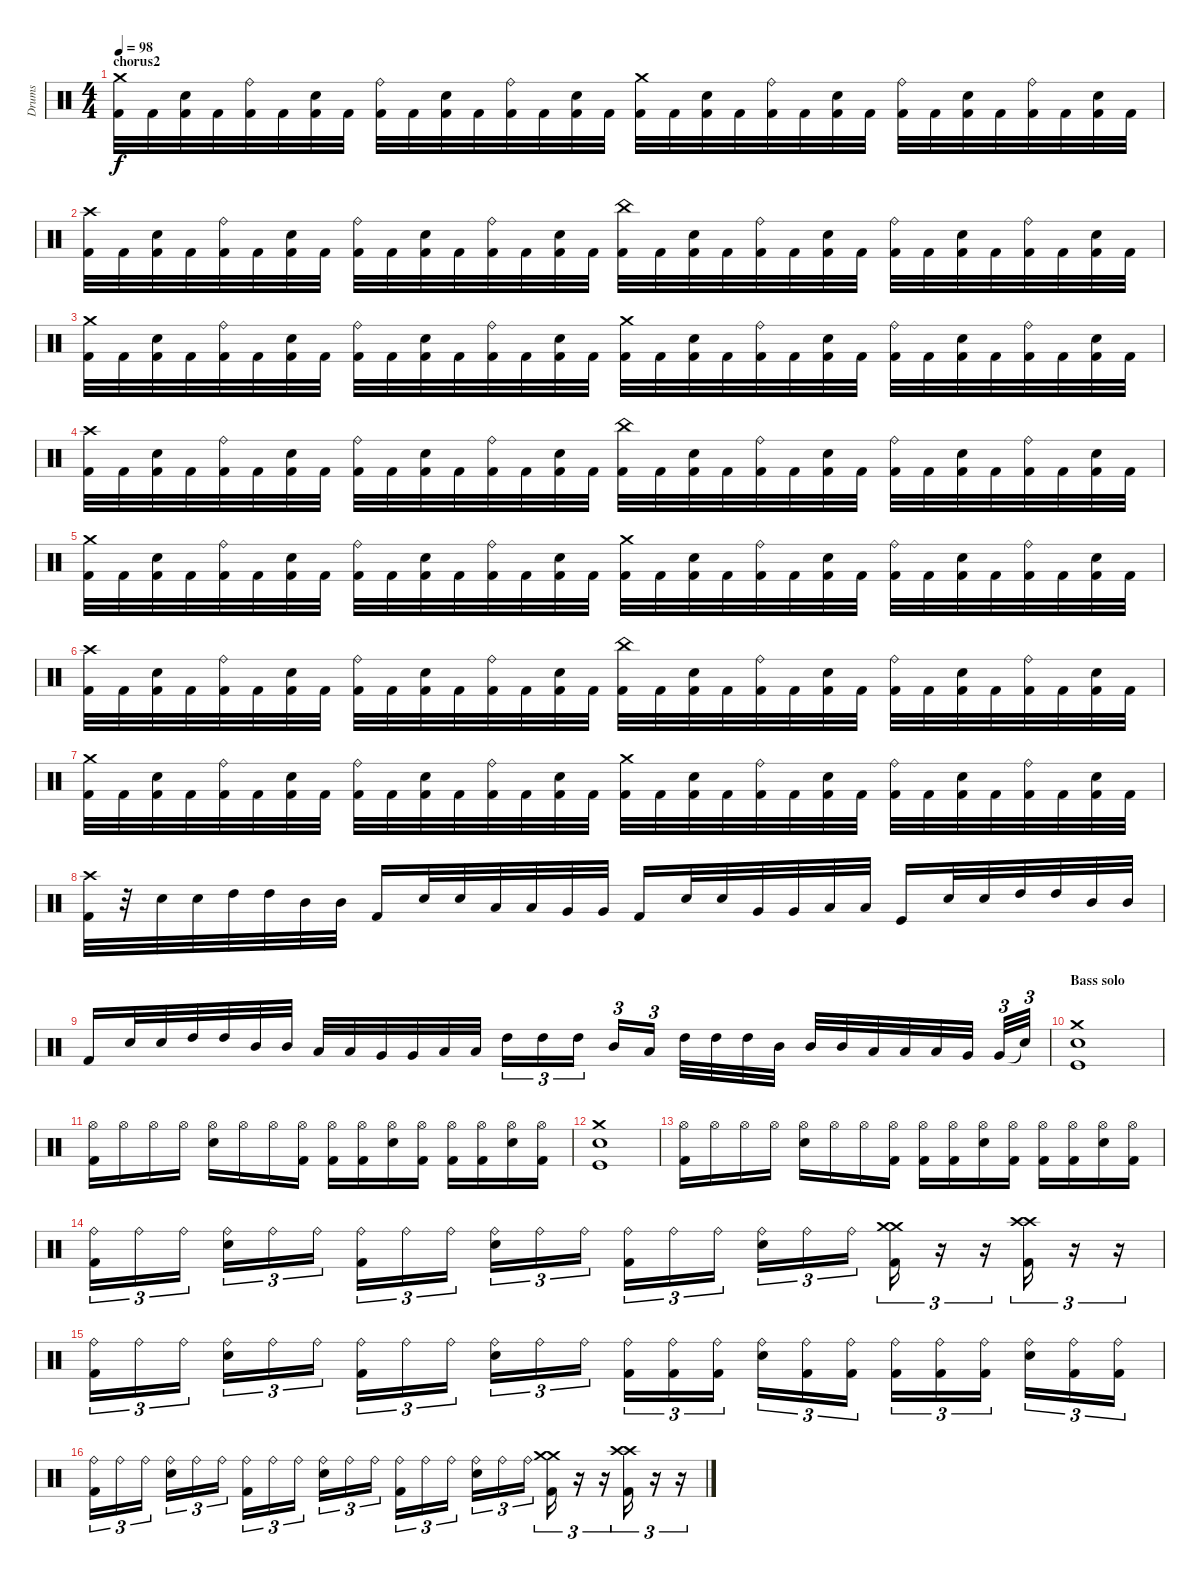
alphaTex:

\track ("Drums" "Drums") {instrument percussion}
\staff {score}
\articulation defaults
\ts (4 4)
\section ("" "chorus2")
\tempo 98
\clef neutral
\ks c
("Crash medium (hit)" "Kick (hit) 2").32{dy f} "Kick (hit) 2".32 ("Electric Snare (hit)" "Kick (hit) 2").32 "Kick (hit) 2".32 ("Ride (bell)" "Kick (hit) 2").32 "Kick (hit) 2".32 ("Electric Snare (hit)" "Kick (hit) 2").32 "Kick (hit) 2".32 ("Ride (bell)" "Kick (hit) 2").32 "Kick (hit) 2".32 ("Electric Snare (hit)" "Kick (hit) 2").32 "Kick (hit) 2".32 ("Ride (bell)" "Kick (hit) 2").32 "Kick (hit) 2".32 ("Electric Snare (hit)" "Kick (hit) 2").32 "Kick (hit) 2".32 ("Crash medium (hit)" "Kick (hit) 2").32 "Kick (hit) 2".32 ("Electric Snare (hit)" "Kick (hit) 2").32 "Kick (hit) 2".32 ("Ride (bell)" "Kick (hit) 2").32 "Kick (hit) 2".32 ("Electric Snare (hit)" "Kick (hit) 2").32 "Kick (hit) 2".32 ("Ride (bell)" "Kick (hit) 2").32 "Kick (hit) 2".32 ("Electric Snare (hit)" "Kick (hit) 2").32 "Kick (hit) 2".32 ("Ride (bell)" "Kick (hit) 2").32 "Kick (hit) 2".32 ("Electric Snare (hit)" "Kick (hit) 2").32 "Kick (hit) 2".32 |
("Crash high (hit)" "Kick (hit) 2").32 "Kick (hit) 2".32 ("Electric Snare (hit)" "Kick (hit) 2").32 "Kick (hit) 2".32 ("Ride (bell)" "Kick (hit) 2").32 "Kick (hit) 2".32 ("Electric Snare (hit)" "Kick (hit) 2").32 "Kick (hit) 2".32 ("Ride (bell)" "Kick (hit) 2").32 "Kick (hit) 2".32 ("Electric Snare (hit)" "Kick (hit) 2").32 "Kick (hit) 2".32 ("Ride (bell)" "Kick (hit) 2").32 "Kick (hit) 2".32 ("Electric Snare (hit)" "Kick (hit) 2").32 "Kick (hit) 2".32 ("China (hit)" "Kick (hit) 2").32 "Kick (hit) 2".32 ("Electric Snare (hit)" "Kick (hit) 2").32 "Kick (hit) 2".32 ("Ride (bell)" "Kick (hit) 2").32 "Kick (hit) 2".32 ("Electric Snare (hit)" "Kick (hit) 2").32 "Kick (hit) 2".32 ("Ride (bell)" "Kick (hit) 2").32 "Kick (hit) 2".32 ("Electric Snare (hit)" "Kick (hit) 2").32 "Kick (hit) 2".32 ("Ride (bell)" "Kick (hit) 2").32 "Kick (hit) 2".32 ("Electric Snare (hit)" "Kick (hit) 2").32 "Kick (hit) 2".32 |
("Crash medium (hit)" "Kick (hit) 2").32 "Kick (hit) 2".32 ("Electric Snare (hit)" "Kick (hit) 2").32 "Kick (hit) 2".32 ("Ride (bell)" "Kick (hit) 2").32 "Kick (hit) 2".32 ("Electric Snare (hit)" "Kick (hit) 2").32 "Kick (hit) 2".32 ("Ride (bell)" "Kick (hit) 2").32 "Kick (hit) 2".32 ("Electric Snare (hit)" "Kick (hit) 2").32 "Kick (hit) 2".32 ("Ride (bell)" "Kick (hit) 2").32 "Kick (hit) 2".32 ("Electric Snare (hit)" "Kick (hit) 2").32 "Kick (hit) 2".32 ("Crash medium (hit)" "Kick (hit) 2").32 "Kick (hit) 2".32 ("Electric Snare (hit)" "Kick (hit) 2").32 "Kick (hit) 2".32 ("Ride (bell)" "Kick (hit) 2").32 "Kick (hit) 2".32 ("Electric Snare (hit)" "Kick (hit) 2").32 "Kick (hit) 2".32 ("Ride (bell)" "Kick (hit) 2").32 "Kick (hit) 2".32 ("Electric Snare (hit)" "Kick (hit) 2").32 "Kick (hit) 2".32 ("Ride (bell)" "Kick (hit) 2").32 "Kick (hit) 2".32 ("Electric Snare (hit)" "Kick (hit) 2").32 "Kick (hit) 2".32 |
("Crash high (hit)" "Kick (hit) 2").32 "Kick (hit) 2".32 ("Electric Snare (hit)" "Kick (hit) 2").32 "Kick (hit) 2".32 ("Ride (bell)" "Kick (hit) 2").32 "Kick (hit) 2".32 ("Electric Snare (hit)" "Kick (hit) 2").32 "Kick (hit) 2".32 ("Ride (bell)" "Kick (hit) 2").32 "Kick (hit) 2".32 ("Electric Snare (hit)" "Kick (hit) 2").32 "Kick (hit) 2".32 ("Ride (bell)" "Kick (hit) 2").32 "Kick (hit) 2".32 ("Electric Snare (hit)" "Kick (hit) 2").32 "Kick (hit) 2".32 ("China (hit)" "Kick (hit) 2").32 "Kick (hit) 2".32 ("Electric Snare (hit)" "Kick (hit) 2").32 "Kick (hit) 2".32 ("Ride (bell)" "Kick (hit) 2").32 "Kick (hit) 2".32 ("Electric Snare (hit)" "Kick (hit) 2").32 "Kick (hit) 2".32 ("Ride (bell)" "Kick (hit) 2").32 "Kick (hit) 2".32 ("Electric Snare (hit)" "Kick (hit) 2").32 "Kick (hit) 2".32 ("Ride (bell)" "Kick (hit) 2").32 "Kick (hit) 2".32 ("Electric Snare (hit)" "Kick (hit) 2").32 "Kick (hit) 2".32 |
("Crash medium (hit)" "Kick (hit) 2").32 "Kick (hit) 2".32 ("Electric Snare (hit)" "Kick (hit) 2").32 "Kick (hit) 2".32 ("Ride (bell)" "Kick (hit) 2").32 "Kick (hit) 2".32 ("Electric Snare (hit)" "Kick (hit) 2").32 "Kick (hit) 2".32 ("Ride (bell)" "Kick (hit) 2").32 "Kick (hit) 2".32 ("Electric Snare (hit)" "Kick (hit) 2").32 "Kick (hit) 2".32 ("Ride (bell)" "Kick (hit) 2").32 "Kick (hit) 2".32 ("Electric Snare (hit)" "Kick (hit) 2").32 "Kick (hit) 2".32 ("Crash medium (hit)" "Kick (hit) 2").32 "Kick (hit) 2".32 ("Electric Snare (hit)" "Kick (hit) 2").32 "Kick (hit) 2".32 ("Ride (bell)" "Kick (hit) 2").32 "Kick (hit) 2".32 ("Electric Snare (hit)" "Kick (hit) 2").32 "Kick (hit) 2".32 ("Ride (bell)" "Kick (hit) 2").32 "Kick (hit) 2".32 ("Electric Snare (hit)" "Kick (hit) 2").32 "Kick (hit) 2".32 ("Ride (bell)" "Kick (hit) 2").32 "Kick (hit) 2".32 ("Electric Snare (hit)" "Kick (hit) 2").32 "Kick (hit) 2".32 |
("Crash high (hit)" "Kick (hit) 2").32 "Kick (hit) 2".32 ("Electric Snare (hit)" "Kick (hit) 2").32 "Kick (hit) 2".32 ("Ride (bell)" "Kick (hit) 2").32 "Kick (hit) 2".32 ("Electric Snare (hit)" "Kick (hit) 2").32 "Kick (hit) 2".32 ("Ride (bell)" "Kick (hit) 2").32 "Kick (hit) 2".32 ("Electric Snare (hit)" "Kick (hit) 2").32 "Kick (hit) 2".32 ("Ride (bell)" "Kick (hit) 2").32 "Kick (hit) 2".32 ("Electric Snare (hit)" "Kick (hit) 2").32 "Kick (hit) 2".32 ("China (hit)" "Kick (hit) 2").32 "Kick (hit) 2".32 ("Electric Snare (hit)" "Kick (hit) 2").32 "Kick (hit) 2".32 ("Ride (bell)" "Kick (hit) 2").32 "Kick (hit) 2".32 ("Electric Snare (hit)" "Kick (hit) 2").32 "Kick (hit) 2".32 ("Ride (bell)" "Kick (hit) 2").32 "Kick (hit) 2".32 ("Electric Snare (hit)" "Kick (hit) 2").32 "Kick (hit) 2".32 ("Ride (bell)" "Kick (hit) 2").32 "Kick (hit) 2".32 ("Electric Snare (hit)" "Kick (hit) 2").32 "Kick (hit) 2".32 |
("Crash medium (hit)" "Kick (hit) 2").32 "Kick (hit) 2".32 ("Electric Snare (hit)" "Kick (hit) 2").32 "Kick (hit) 2".32 ("Ride (bell)" "Kick (hit) 2").32 "Kick (hit) 2".32 ("Electric Snare (hit)" "Kick (hit) 2").32 "Kick (hit) 2".32 ("Ride (bell)" "Kick (hit) 2").32 "Kick (hit) 2".32 ("Electric Snare (hit)" "Kick (hit) 2").32 "Kick (hit) 2".32 ("Ride (bell)" "Kick (hit) 2").32 "Kick (hit) 2".32 ("Electric Snare (hit)" "Kick (hit) 2").32 "Kick (hit) 2".32 ("Crash medium (hit)" "Kick (hit) 2").32 "Kick (hit) 2".32 ("Electric Snare (hit)" "Kick (hit) 2").32 "Kick (hit) 2".32 ("Ride (bell)" "Kick (hit) 2").32 "Kick (hit) 2".32 ("Electric Snare (hit)" "Kick (hit) 2").32 "Kick (hit) 2".32 ("Ride (bell)" "Kick (hit) 2").32 "Kick (hit) 2".32 ("Electric Snare (hit)" "Kick (hit) 2").32 "Kick (hit) 2".32 ("Ride (bell)" "Kick (hit) 2").32 "Kick (hit) 2".32 ("Electric Snare (hit)" "Kick (hit) 2").32 "Kick (hit) 2".32 |
("Crash high (hit)" "Kick (hit) 2").32 r.32 "Electric Snare (hit)".32 "Electric Snare (hit)".32 "High Tom (hit)".32 "High Tom (hit)".32 "Mid Tom (hit)".32 "Mid Tom (hit)".32 "Kick (hit) 2".16 "Electric Snare (hit)".32 "Electric Snare (hit)".32 "Low Tom (hit)".32 "Low Tom (hit)".32 "Very Low Tom (hit)".32 "Very Low Tom (hit)".32 "Kick (hit) 2".16 "Electric Snare (hit)".32 "Electric Snare (hit)".32 "Very Low Tom (hit)".32 "Very Low Tom (hit)".32 "Low Floor Tom (hit)".32 "Low Floor Tom (hit)".32 "Kick (hit)".16 "Electric Snare (hit)".32 "Electric Snare (hit)".32 "High Tom (hit)".32 "High Tom (hit)".32 "Mid Tom (hit)".32 "Mid Tom (hit)".32 |
"Kick (hit) 2".16 "Electric Snare (hit)".32 "Electric Snare (hit)".32 "High Tom (hit)".32 "High Tom (hit)".32 "Mid Tom (hit)".32 "Mid Tom (hit)".32 "Low Tom (hit)".32 "Low Tom (hit)".32 "Very Low Tom (hit)".32 "Very Low Tom (hit)".32 "Low Floor Tom (hit)".32 "Low Floor Tom (hit)".32 "High Tom (hit)".16{tu (3 2)} "High Tom (hit)".16{tu (3 2)} "High Tom (hit)".16{tu (3 2)} "Mid Tom (hit)".16{tu (3 2)} "Low Tom (hit)".16{tu (3 2)} "High Tom (hit)".32 "High Tom (hit)".32 "High Tom (hit)".32 "Mid Tom (hit)".32 "Mid Tom (hit)".32 "Mid Tom (hit)".32 "Low Tom (hit)".32 "Low Tom (hit)".32 "Low Tom (hit)".32 "Very Low Tom (hit)".32 "Very Low Tom (hit)".32{tu (3 2)} "Snare (hit)"{t}.32{tu (3 2)} |
\section ("" "Bass solo")
("Crash medium (hit)" "Electric Snare (hit)" "Kick (hit)").1 |
("Hi-Hat (open)" "Kick (hit) 2").16 "Hi-Hat (open)".16 "Hi-Hat (open)".16 "Hi-Hat (open)".16 ("Hi-Hat (open)" "Electric Snare (hit)").16 "Hi-Hat (open)".16 "Hi-Hat (open)".16 ("Hi-Hat (open)" "Kick (hit) 2").16 ("Hi-Hat (open)" "Kick (hit) 2").16 ("Hi-Hat (open)" "Kick (hit) 2").16 ("Hi-Hat (open)" "Electric Snare (hit)").16 ("Hi-Hat (open)" "Kick (hit) 2").16 ("Hi-Hat (open)" "Kick (hit) 2").16 ("Hi-Hat (open)" "Kick (hit) 2").16 ("Hi-Hat (open)" "Electric Snare (hit)").16 ("Hi-Hat (open)" "Kick (hit) 2").16 |
("Crash medium (hit)" "Electric Snare (hit)" "Kick (hit)").1 |
("Hi-Hat (open)" "Kick (hit) 2").16 "Hi-Hat (open)".16 "Hi-Hat (open)".16 "Hi-Hat (open)".16 ("Hi-Hat (open)" "Electric Snare (hit)").16 "Hi-Hat (open)".16 "Hi-Hat (open)".16 ("Hi-Hat (open)" "Kick (hit) 2").16 ("Hi-Hat (open)" "Kick (hit) 2").16 ("Hi-Hat (open)" "Kick (hit) 2").16 ("Hi-Hat (open)" "Electric Snare (hit)").16 ("Hi-Hat (open)" "Kick (hit) 2").16 ("Hi-Hat (open)" "Kick (hit) 2").16 ("Hi-Hat (open)" "Kick (hit) 2").16 ("Hi-Hat (open)" "Electric Snare (hit)").16 ("Hi-Hat (open)" "Kick (hit) 2").16 |
("Ride (bell)" "Kick (hit) 2").16{tu (3 2)} "Ride (bell)".16{tu (3 2)} "Ride (bell)".16{tu (3 2)} ("Ride (bell)" "Electric Snare (hit)").16{tu (3 2)} "Ride (bell)".16{tu (3 2)} "Ride (bell)".16{tu (3 2)} ("Ride (bell)" "Kick (hit) 2").16{tu (3 2)} "Ride (bell)".16{tu (3 2)} "Ride (bell)".16{tu (3 2)} ("Ride (bell)" "Electric Snare (hit)").16{tu (3 2)} "Ride (bell)".16{tu (3 2)} "Ride (bell)".16{tu (3 2)} ("Ride (bell)" "Kick (hit) 2").16{tu (3 2)} "Ride (bell)".16{tu (3 2)} "Ride (bell)".16{tu (3 2)} ("Ride (bell)" "Electric Snare (hit)").16{tu (3 2)} "Ride (bell)".16{tu (3 2)} "Ride (bell)".16{tu (3 2)} ("Crash medium (hit)" "Crash medium (hit)" "Kick (hit) 2").16{tu (3 2)} r.16{tu (3 2)} r.16{tu (3 2)} ("Crash high (hit)" "Crash high (hit)" "Kick (hit) 2").16{tu (3 2)} r.16{tu (3 2)} r.16{tu (3 2)} |
("Ride (bell)" "Kick (hit) 2").16{tu (3 2)} "Ride (bell)".16{tu (3 2)} "Ride (bell)".16{tu (3 2)} ("Ride (bell)" "Electric Snare (hit)").16{tu (3 2)} "Ride (bell)".16{tu (3 2)} "Ride (bell)".16{tu (3 2)} ("Ride (bell)" "Kick (hit) 2").16{tu (3 2)} "Ride (bell)".16{tu (3 2)} "Ride (bell)".16{tu (3 2)} ("Ride (bell)" "Electric Snare (hit)").16{tu (3 2)} "Ride (bell)".16{tu (3 2)} "Ride (bell)".16{tu (3 2)} ("Ride (bell)" "Kick (hit) 2").16{tu (3 2)} ("Ride (bell)" "Kick (hit) 2").16{tu (3 2)} ("Ride (bell)" "Kick (hit) 2").16{tu (3 2)} ("Ride (bell)" "Electric Snare (hit)").16{tu (3 2)} ("Ride (bell)" "Kick (hit) 2").16{tu (3 2)} ("Ride (bell)" "Kick (hit) 2").16{tu (3 2)} ("Ride (bell)" "Kick (hit) 2").16{tu (3 2)} ("Ride (bell)" "Kick (hit) 2").16{tu (3 2)} ("Ride (bell)" "Kick (hit) 2").16{tu (3 2)} ("Ride (bell)" "Electric Snare (hit)").16{tu (3 2)} ("Ride (bell)" "Kick (hit) 2").16{tu (3 2)} ("Ride (bell)" "Kick (hit) 2").16{tu (3 2)} |
("Ride (bell)" "Kick (hit) 2").16{tu (3 2)} "Ride (bell)".16{tu (3 2)} "Ride (bell)".16{tu (3 2)} ("Ride (bell)" "Electric Snare (hit)").16{tu (3 2)} "Ride (bell)".16{tu (3 2)} "Ride (bell)".16{tu (3 2)} ("Ride (bell)" "Kick (hit) 2").16{tu (3 2)} "Ride (bell)".16{tu (3 2)} "Ride (bell)".16{tu (3 2)} ("Ride (bell)" "Electric Snare (hit)").16{tu (3 2)} "Ride (bell)".16{tu (3 2)} "Ride (bell)".16{tu (3 2)} ("Ride (bell)" "Kick (hit) 2").16{tu (3 2)} "Ride (bell)".16{tu (3 2)} "Ride (bell)".16{tu (3 2)} ("Ride (bell)" "Electric Snare (hit)").16{tu (3 2)} "Ride (bell)".16{tu (3 2)} "Ride (bell)".16{tu (3 2)} ("Crash medium (hit)" "Crash medium (hit)" "Kick (hit) 2").16{tu (3 2)} r.16{tu (3 2)} r.16{tu (3 2)} ("Crash high (hit)" "Crash high (hit)" "Kick (hit) 2").16{tu (3 2)} r.16{tu (3 2)} r.16{tu (3 2)}
